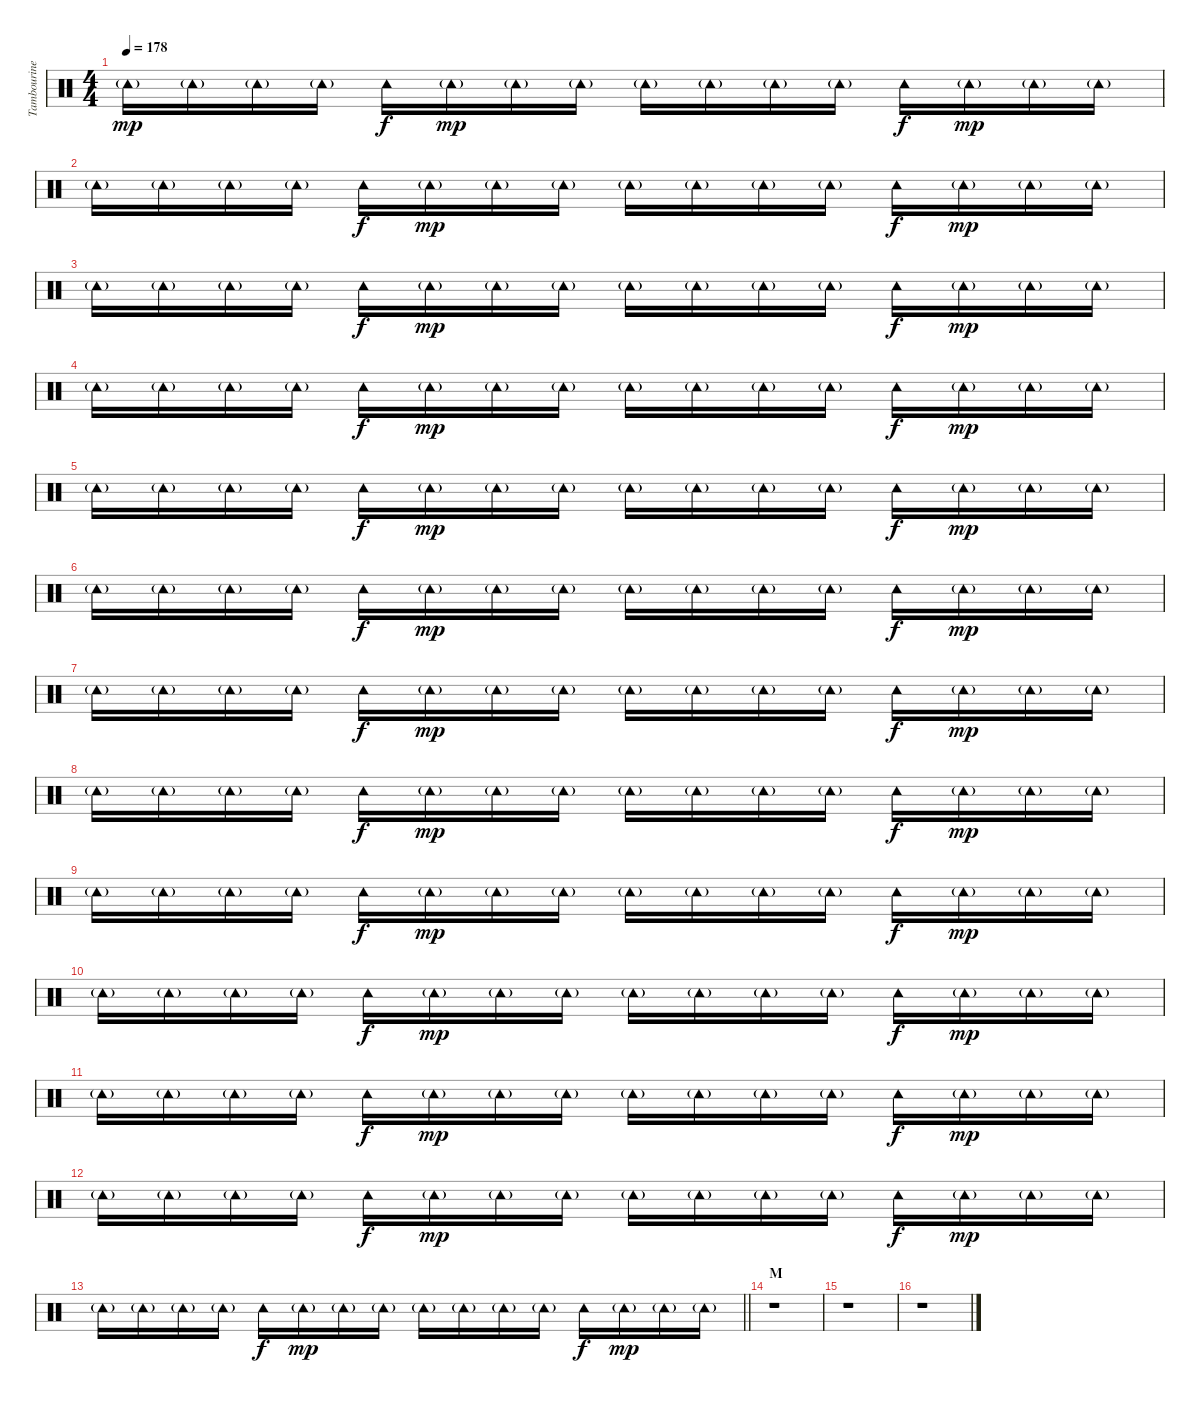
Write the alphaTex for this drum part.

\track ("Tambourine" "Tambourine") {instrument percussion}
\staff {score}
\articulation defaults
\ts (4 4)
\tempo 178
\clef neutral
\ks c "Tambourine (hit)"{g}.16{dy mp} "Tambourine (hit)"{g}.16 "Tambourine (hit)"{g}.16 "Tambourine (hit)"{g}.16 "Tambourine (hit)".16{dy f} "Tambourine (hit)"{g}.16{dy mp} "Tambourine (hit)"{g}.16 "Tambourine (hit)"{g}.16 "Tambourine (hit)"{g}.16 "Tambourine (hit)"{g}.16 "Tambourine (hit)"{g}.16 "Tambourine (hit)"{g}.16 "Tambourine (hit)".16{dy f} "Tambourine (hit)"{g}.16{dy mp} "Tambourine (hit)"{g}.16 "Tambourine (hit)"{g}.16
|
"Tambourine (hit)"{g}.16 "Tambourine (hit)"{g}.16 "Tambourine (hit)"{g}.16 "Tambourine (hit)"{g}.16 "Tambourine (hit)".16{dy f} "Tambourine (hit)"{g}.16{dy mp} "Tambourine (hit)"{g}.16 "Tambourine (hit)"{g}.16 "Tambourine (hit)"{g}.16 "Tambourine (hit)"{g}.16 "Tambourine (hit)"{g}.16 "Tambourine (hit)"{g}.16 "Tambourine (hit)".16{dy f} "Tambourine (hit)"{g}.16{dy mp} "Tambourine (hit)"{g}.16 "Tambourine (hit)"{g}.16 |
"Tambourine (hit)"{g}.16 "Tambourine (hit)"{g}.16 "Tambourine (hit)"{g}.16 "Tambourine (hit)"{g}.16 "Tambourine (hit)".16{dy f} "Tambourine (hit)"{g}.16{dy mp} "Tambourine (hit)"{g}.16 "Tambourine (hit)"{g}.16 "Tambourine (hit)"{g}.16 "Tambourine (hit)"{g}.16 "Tambourine (hit)"{g}.16 "Tambourine (hit)"{g}.16 "Tambourine (hit)".16{dy f} "Tambourine (hit)"{g}.16{dy mp} "Tambourine (hit)"{g}.16 "Tambourine (hit)"{g}.16 |
"Tambourine (hit)"{g}.16 "Tambourine (hit)"{g}.16 "Tambourine (hit)"{g}.16 "Tambourine (hit)"{g}.16 "Tambourine (hit)".16{dy f} "Tambourine (hit)"{g}.16{dy mp} "Tambourine (hit)"{g}.16 "Tambourine (hit)"{g}.16 "Tambourine (hit)"{g}.16 "Tambourine (hit)"{g}.16 "Tambourine (hit)"{g}.16 "Tambourine (hit)"{g}.16 "Tambourine (hit)".16{dy f} "Tambourine (hit)"{g}.16{dy mp} "Tambourine (hit)"{g}.16 "Tambourine (hit)"{g}.16 |
"Tambourine (hit)"{g}.16 "Tambourine (hit)"{g}.16 "Tambourine (hit)"{g}.16 "Tambourine (hit)"{g}.16 "Tambourine (hit)".16{dy f} "Tambourine (hit)"{g}.16{dy mp} "Tambourine (hit)"{g}.16 "Tambourine (hit)"{g}.16 "Tambourine (hit)"{g}.16 "Tambourine (hit)"{g}.16 "Tambourine (hit)"{g}.16 "Tambourine (hit)"{g}.16 "Tambourine (hit)".16{dy f} "Tambourine (hit)"{g}.16{dy mp} "Tambourine (hit)"{g}.16 "Tambourine (hit)"{g}.16 |
"Tambourine (hit)"{g}.16 "Tambourine (hit)"{g}.16 "Tambourine (hit)"{g}.16 "Tambourine (hit)"{g}.16 "Tambourine (hit)".16{dy f} "Tambourine (hit)"{g}.16{dy mp} "Tambourine (hit)"{g}.16 "Tambourine (hit)"{g}.16 "Tambourine (hit)"{g}.16 "Tambourine (hit)"{g}.16 "Tambourine (hit)"{g}.16 "Tambourine (hit)"{g}.16 "Tambourine (hit)".16{dy f} "Tambourine (hit)"{g}.16{dy mp} "Tambourine (hit)"{g}.16 "Tambourine (hit)"{g}.16 |
"Tambourine (hit)"{g}.16 "Tambourine (hit)"{g}.16 "Tambourine (hit)"{g}.16 "Tambourine (hit)"{g}.16 "Tambourine (hit)".16{dy f} "Tambourine (hit)"{g}.16{dy mp} "Tambourine (hit)"{g}.16 "Tambourine (hit)"{g}.16 "Tambourine (hit)"{g}.16 "Tambourine (hit)"{g}.16 "Tambourine (hit)"{g}.16 "Tambourine (hit)"{g}.16 "Tambourine (hit)".16{dy f} "Tambourine (hit)"{g}.16{dy mp} "Tambourine (hit)"{g}.16 "Tambourine (hit)"{g}.16 |
"Tambourine (hit)"{g}.16 "Tambourine (hit)"{g}.16 "Tambourine (hit)"{g}.16 "Tambourine (hit)"{g}.16 "Tambourine (hit)".16{dy f} "Tambourine (hit)"{g}.16{dy mp} "Tambourine (hit)"{g}.16 "Tambourine (hit)"{g}.16 "Tambourine (hit)"{g}.16 "Tambourine (hit)"{g}.16 "Tambourine (hit)"{g}.16 "Tambourine (hit)"{g}.16 "Tambourine (hit)".16{dy f} "Tambourine (hit)"{g}.16{dy mp} "Tambourine (hit)"{g}.16 "Tambourine (hit)"{g}.16 |
"Tambourine (hit)"{g}.16 "Tambourine (hit)"{g}.16 "Tambourine (hit)"{g}.16 "Tambourine (hit)"{g}.16 "Tambourine (hit)".16{dy f} "Tambourine (hit)"{g}.16{dy mp} "Tambourine (hit)"{g}.16 "Tambourine (hit)"{g}.16 "Tambourine (hit)"{g}.16 "Tambourine (hit)"{g}.16 "Tambourine (hit)"{g}.16 "Tambourine (hit)"{g}.16 "Tambourine (hit)".16{dy f} "Tambourine (hit)"{g}.16{dy mp} "Tambourine (hit)"{g}.16 "Tambourine (hit)"{g}.16 |
"Tambourine (hit)"{g}.16 "Tambourine (hit)"{g}.16 "Tambourine (hit)"{g}.16 "Tambourine (hit)"{g}.16 "Tambourine (hit)".16{dy f} "Tambourine (hit)"{g}.16{dy mp} "Tambourine (hit)"{g}.16 "Tambourine (hit)"{g}.16 "Tambourine (hit)"{g}.16 "Tambourine (hit)"{g}.16 "Tambourine (hit)"{g}.16 "Tambourine (hit)"{g}.16 "Tambourine (hit)".16{dy f} "Tambourine (hit)"{g}.16{dy mp} "Tambourine (hit)"{g}.16 "Tambourine (hit)"{g}.16 |
"Tambourine (hit)"{g}.16 "Tambourine (hit)"{g}.16 "Tambourine (hit)"{g}.16 "Tambourine (hit)"{g}.16 "Tambourine (hit)".16{dy f} "Tambourine (hit)"{g}.16{dy mp} "Tambourine (hit)"{g}.16 "Tambourine (hit)"{g}.16 "Tambourine (hit)"{g}.16 "Tambourine (hit)"{g}.16 "Tambourine (hit)"{g}.16 "Tambourine (hit)"{g}.16 "Tambourine (hit)".16{dy f} "Tambourine (hit)"{g}.16{dy mp} "Tambourine (hit)"{g}.16 "Tambourine (hit)"{g}.16 |
"Tambourine (hit)"{g}.16 "Tambourine (hit)"{g}.16 "Tambourine (hit)"{g}.16 "Tambourine (hit)"{g}.16 "Tambourine (hit)".16{dy f} "Tambourine (hit)"{g}.16{dy mp} "Tambourine (hit)"{g}.16 "Tambourine (hit)"{g}.16 "Tambourine (hit)"{g}.16 "Tambourine (hit)"{g}.16 "Tambourine (hit)"{g}.16 "Tambourine (hit)"{g}.16 "Tambourine (hit)".16{dy f} "Tambourine (hit)"{g}.16{dy mp} "Tambourine (hit)"{g}.16 "Tambourine (hit)"{g}.16 |
\barLineRight lightlight "Tambourine (hit)"{g}.16 "Tambourine (hit)"{g}.16 "Tambourine (hit)"{g}.16 "Tambourine (hit)"{g}.16 "Tambourine (hit)".16{dy f} "Tambourine (hit)"{g}.16{dy mp} "Tambourine (hit)"{g}.16 "Tambourine (hit)"{g}.16 "Tambourine (hit)"{g}.16 "Tambourine (hit)"{g}.16 "Tambourine (hit)"{g}.16 "Tambourine (hit)"{g}.16 "Tambourine (hit)".16{dy f} "Tambourine (hit)"{g}.16{dy mp} "Tambourine (hit)"{g}.16 "Tambourine (hit)"{g}.16
|
\section ("" "M")
r.1 |
r.1 |
r.1
